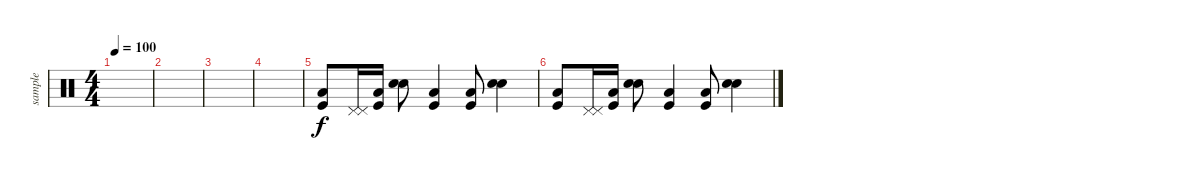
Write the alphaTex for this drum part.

\track ("sample" "sample") {instrument percussion}
\staff {score}
\articulation defaults
\ts (4 4)
\tempo 100
\clef neutral
\ks c
|
|
|
|
("Kick (hit)" "Low Tom (hit)").8 ("Pedal Hi-Hat (hit)" "Pedal Hi-Hat (hit)").16 ("Kick (hit)" "Low Tom (hit)").16 ("Snare (hit) 2" "Snare (hit) 2").8 ("Kick (hit)" "Low Tom (hit)").4 ("Kick (hit)" "Low Tom (hit)").8 ("Snare (hit) 2" "Snare (hit) 2").4 |
("Kick (hit)" "Low Tom (hit)").8 ("Pedal Hi-Hat (hit)" "Pedal Hi-Hat (hit)").16 ("Kick (hit)" "Low Tom (hit)").16 ("Snare (hit) 2" "Snare (hit) 2").8 ("Kick (hit)" "Low Tom (hit)").4 ("Kick (hit)" "Low Tom (hit)").8 ("Snare (hit) 2" "Snare (hit) 2").4
